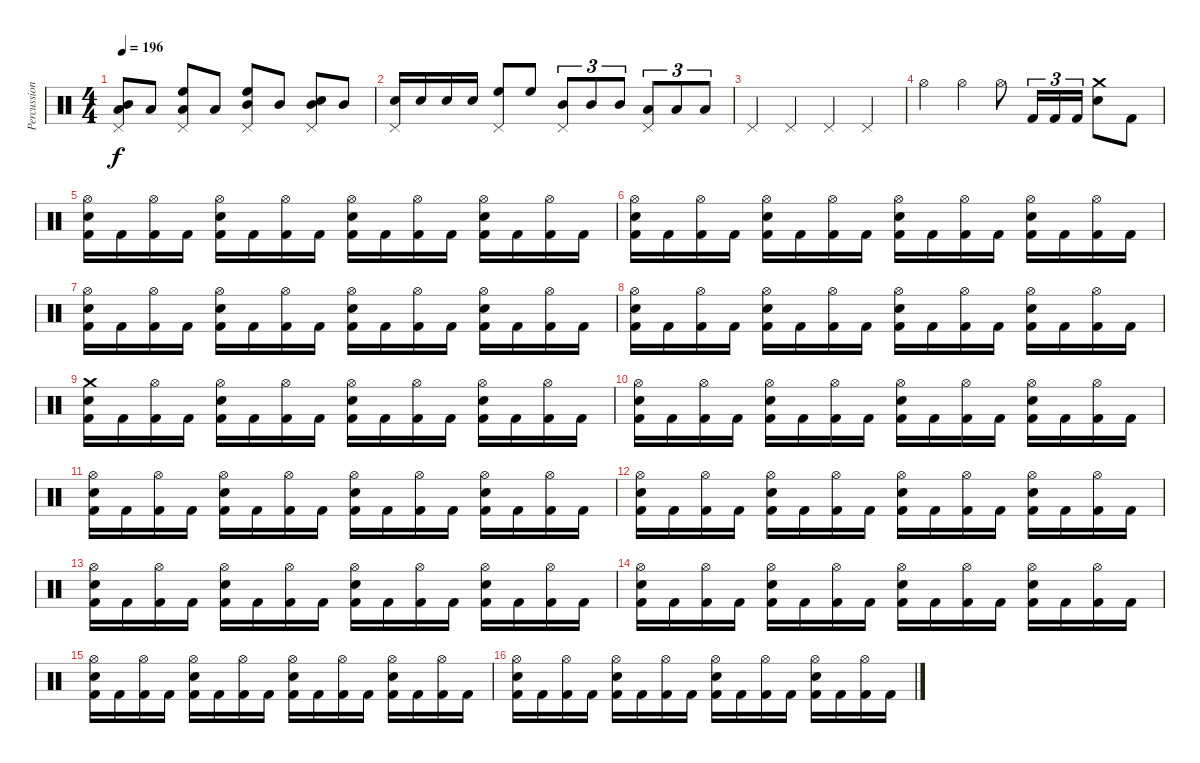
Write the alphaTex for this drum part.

\track ("Percussion" "Percussion") {instrument percussion}
\staff {score}
\articulation defaults
\ts (4 4)
\tempo 196
\clef neutral
\ks c
("Pedal Hi-Hat (hit)" "Mid Tom (hit)" "Low Tom (hit)").8{dy f} "Low Tom (hit)".8 ("Pedal Hi-Hat (hit)" "High Floor Tom (hit)" "Low Tom (hit)").8 "Low Tom (hit)".8 ("Pedal Hi-Hat (hit)" "High Floor Tom (hit)" "Mid Tom (hit)").8 "Mid Tom (hit)".8 ("Pedal Hi-Hat (hit)" "Snare (hit) 2" "Mid Tom (hit)").8 "Mid Tom (hit)".8 |
("Pedal Hi-Hat (hit)" "Snare (hit) 2").16 "Snare (hit) 2".16 "Snare (hit) 2".16 "Snare (hit) 2".16 ("Pedal Hi-Hat (hit)" "High Floor Tom (hit)").8 "High Floor Tom (hit)".8 ("Pedal Hi-Hat (hit)" "Mid Tom (hit)").8{tu (3 2)} "Mid Tom (hit)".8{tu (3 2)} "Mid Tom (hit)".8{tu (3 2)} ("Pedal Hi-Hat (hit)" "Low Tom (hit)").8{tu (3 2)} "Low Tom (hit)".8{tu (3 2)} "Low Floor Tom (hit)".8{tu (3 2)} |
"Pedal Hi-Hat (hit)".4 "Pedal Hi-Hat (hit)".4 "Pedal Hi-Hat (hit)".4 "Pedal Hi-Hat (hit)".4 |
"Hi-Hat (open)".4 "Hi-Hat (open)".4 "Hi-Hat (open)".8 "Kick (hit) 2".16{tu (3 2)} "Kick (hit) 2".16{tu (3 2)} "Kick (hit) 2".16{tu (3 2)} ("Crash medium (hit)" "Snare (hit) 2").8 "Kick (hit) 2".8 |
("Hi-Hat (open)" "Snare (hit) 2" "Kick (hit) 2").16 "Kick (hit) 2".16 ("Hi-Hat (open)" "Kick (hit) 2").16 "Kick (hit) 2".16 ("Hi-Hat (open)" "Snare (hit) 2" "Kick (hit) 2").16 "Kick (hit) 2".16 ("Hi-Hat (open)" "Kick (hit) 2").16 "Kick (hit) 2".16 ("Hi-Hat (open)" "Snare (hit) 2" "Kick (hit) 2").16 "Kick (hit) 2".16 ("Hi-Hat (open)" "Kick (hit) 2").16 "Kick (hit) 2".16 ("Hi-Hat (open)" "Snare (hit) 2" "Kick (hit) 2").16 "Kick (hit) 2".16 ("Hi-Hat (open)" "Kick (hit) 2").16 "Kick (hit) 2".16 |
("Hi-Hat (open)" "Snare (hit) 2" "Kick (hit) 2").16 "Kick (hit) 2".16 ("Hi-Hat (open)" "Kick (hit) 2").16 "Kick (hit) 2".16 ("Hi-Hat (open)" "Snare (hit) 2" "Kick (hit) 2").16 "Kick (hit) 2".16 ("Hi-Hat (open)" "Kick (hit) 2").16 "Kick (hit) 2".16 ("Hi-Hat (open)" "Snare (hit) 2" "Kick (hit) 2").16 "Kick (hit) 2".16 ("Hi-Hat (open)" "Kick (hit) 2").16 "Kick (hit) 2".16 ("Hi-Hat (open)" "Snare (hit) 2" "Kick (hit) 2").16 "Kick (hit) 2".16 ("Hi-Hat (open)" "Kick (hit) 2").16 "Kick (hit) 2".16 |
("Hi-Hat (open)" "Snare (hit) 2" "Kick (hit) 2").16 "Kick (hit) 2".16 ("Hi-Hat (open)" "Kick (hit) 2").16 "Kick (hit) 2".16 ("Hi-Hat (open)" "Snare (hit) 2" "Kick (hit) 2").16 "Kick (hit) 2".16 ("Hi-Hat (open)" "Kick (hit) 2").16 "Kick (hit) 2".16 ("Hi-Hat (open)" "Snare (hit) 2" "Kick (hit) 2").16 "Kick (hit) 2".16 ("Hi-Hat (open)" "Kick (hit) 2").16 "Kick (hit) 2".16 ("Hi-Hat (open)" "Snare (hit) 2" "Kick (hit) 2").16 "Kick (hit) 2".16 ("Hi-Hat (open)" "Kick (hit) 2").16 "Kick (hit) 2".16 |
("Hi-Hat (open)" "Snare (hit) 2" "Kick (hit) 2").16 "Kick (hit) 2".16 ("Hi-Hat (open)" "Kick (hit) 2").16 "Kick (hit) 2".16 ("Hi-Hat (open)" "Snare (hit) 2" "Kick (hit) 2").16 "Kick (hit) 2".16 ("Hi-Hat (open)" "Kick (hit) 2").16 "Kick (hit) 2".16 ("Hi-Hat (open)" "Snare (hit) 2" "Kick (hit) 2").16 "Kick (hit) 2".16 ("Hi-Hat (open)" "Kick (hit) 2").16 "Kick (hit) 2".16 ("Hi-Hat (open)" "Snare (hit) 2" "Kick (hit) 2").16 "Kick (hit) 2".16 ("Hi-Hat (open)" "Kick (hit) 2").16 "Kick (hit) 2".16 |
("Crash medium (hit)" "Snare (hit) 2" "Kick (hit) 2").16 "Kick (hit) 2".16 ("Hi-Hat (open)" "Kick (hit) 2").16 "Kick (hit) 2".16 ("Hi-Hat (open)" "Snare (hit) 2" "Kick (hit) 2").16 "Kick (hit) 2".16 ("Hi-Hat (open)" "Kick (hit) 2").16 "Kick (hit) 2".16 ("Hi-Hat (open)" "Snare (hit) 2" "Kick (hit) 2").16 "Kick (hit) 2".16 ("Hi-Hat (open)" "Kick (hit) 2").16 "Kick (hit) 2".16 ("Hi-Hat (open)" "Snare (hit) 2" "Kick (hit) 2").16 "Kick (hit) 2".16 ("Hi-Hat (open)" "Kick (hit) 2").16 "Kick (hit) 2".16 |
("Hi-Hat (open)" "Snare (hit) 2" "Kick (hit) 2").16 "Kick (hit) 2".16 ("Hi-Hat (open)" "Kick (hit) 2").16 "Kick (hit) 2".16 ("Hi-Hat (open)" "Snare (hit) 2" "Kick (hit) 2").16 "Kick (hit) 2".16 ("Hi-Hat (open)" "Kick (hit) 2").16 "Kick (hit) 2".16 ("Hi-Hat (open)" "Snare (hit) 2" "Kick (hit) 2").16 "Kick (hit) 2".16 ("Hi-Hat (open)" "Kick (hit) 2").16 "Kick (hit) 2".16 ("Hi-Hat (open)" "Snare (hit) 2" "Kick (hit) 2").16 "Kick (hit) 2".16 ("Hi-Hat (open)" "Kick (hit) 2").16 "Kick (hit) 2".16 |
("Hi-Hat (open)" "Snare (hit) 2" "Kick (hit) 2").16 "Kick (hit) 2".16 ("Hi-Hat (open)" "Kick (hit) 2").16 "Kick (hit) 2".16 ("Hi-Hat (open)" "Snare (hit) 2" "Kick (hit) 2").16 "Kick (hit) 2".16 ("Hi-Hat (open)" "Kick (hit) 2").16 "Kick (hit) 2".16 ("Hi-Hat (open)" "Snare (hit) 2" "Kick (hit) 2").16 "Kick (hit) 2".16 ("Hi-Hat (open)" "Kick (hit) 2").16 "Kick (hit) 2".16 ("Hi-Hat (open)" "Snare (hit) 2" "Kick (hit) 2").16 "Kick (hit) 2".16 ("Hi-Hat (open)" "Kick (hit) 2").16 "Kick (hit) 2".16 |
("Hi-Hat (open)" "Snare (hit) 2" "Kick (hit) 2").16 "Kick (hit) 2".16 ("Hi-Hat (open)" "Kick (hit) 2").16 "Kick (hit) 2".16 ("Hi-Hat (open)" "Snare (hit) 2" "Kick (hit) 2").16 "Kick (hit) 2".16 ("Hi-Hat (open)" "Kick (hit) 2").16 "Kick (hit) 2".16 ("Hi-Hat (open)" "Snare (hit) 2" "Kick (hit) 2").16 "Kick (hit) 2".16 ("Hi-Hat (open)" "Kick (hit) 2").16 "Kick (hit) 2".16 ("Hi-Hat (open)" "Snare (hit) 2" "Kick (hit) 2").16 "Kick (hit) 2".16 ("Hi-Hat (open)" "Kick (hit) 2").16 "Kick (hit) 2".16 |
("Hi-Hat (open)" "Snare (hit) 2" "Kick (hit) 2").16 "Kick (hit) 2".16 ("Hi-Hat (open)" "Kick (hit) 2").16 "Kick (hit) 2".16 ("Hi-Hat (open)" "Snare (hit) 2" "Kick (hit) 2").16 "Kick (hit) 2".16 ("Hi-Hat (open)" "Kick (hit) 2").16 "Kick (hit) 2".16 ("Hi-Hat (open)" "Snare (hit) 2" "Kick (hit) 2").16 "Kick (hit) 2".16 ("Hi-Hat (open)" "Kick (hit) 2").16 "Kick (hit) 2".16 ("Hi-Hat (open)" "Snare (hit) 2" "Kick (hit) 2").16 "Kick (hit) 2".16 ("Hi-Hat (open)" "Kick (hit) 2").16 "Kick (hit) 2".16 |
("Hi-Hat (open)" "Snare (hit) 2" "Kick (hit) 2").16 "Kick (hit) 2".16 ("Hi-Hat (open)" "Kick (hit) 2").16 "Kick (hit) 2".16 ("Hi-Hat (open)" "Snare (hit) 2" "Kick (hit) 2").16 "Kick (hit) 2".16 ("Hi-Hat (open)" "Kick (hit) 2").16 "Kick (hit) 2".16 ("Hi-Hat (open)" "Snare (hit) 2" "Kick (hit) 2").16 "Kick (hit) 2".16 ("Hi-Hat (open)" "Kick (hit) 2").16 "Kick (hit) 2".16 ("Hi-Hat (open)" "Snare (hit) 2" "Kick (hit) 2").16 "Kick (hit) 2".16 ("Hi-Hat (open)" "Kick (hit) 2").16 "Kick (hit) 2".16 |
("Hi-Hat (open)" "Snare (hit) 2" "Kick (hit) 2").16 "Kick (hit) 2".16 ("Hi-Hat (open)" "Kick (hit) 2").16 "Kick (hit) 2".16 ("Hi-Hat (open)" "Snare (hit) 2" "Kick (hit) 2").16 "Kick (hit) 2".16 ("Hi-Hat (open)" "Kick (hit) 2").16 "Kick (hit) 2".16 ("Hi-Hat (open)" "Snare (hit) 2" "Kick (hit) 2").16 "Kick (hit) 2".16 ("Hi-Hat (open)" "Kick (hit) 2").16 "Kick (hit) 2".16 ("Hi-Hat (open)" "Snare (hit) 2" "Kick (hit) 2").16 "Kick (hit) 2".16 ("Hi-Hat (open)" "Kick (hit) 2").16 "Kick (hit) 2".16 |
("Hi-Hat (open)" "Snare (hit) 2" "Kick (hit) 2").16 "Kick (hit) 2".16 ("Hi-Hat (open)" "Kick (hit) 2").16 "Kick (hit) 2".16 ("Hi-Hat (open)" "Snare (hit) 2" "Kick (hit) 2").16 "Kick (hit) 2".16 ("Hi-Hat (open)" "Kick (hit) 2").16 "Kick (hit) 2".16 ("Hi-Hat (open)" "Snare (hit) 2" "Kick (hit) 2").16 "Kick (hit) 2".16 ("Hi-Hat (open)" "Kick (hit) 2").16 "Kick (hit) 2".16 ("Hi-Hat (open)" "Snare (hit) 2" "Kick (hit) 2").16 "Kick (hit) 2".16 ("Hi-Hat (open)" "Kick (hit) 2").16 "Kick (hit) 2".16
